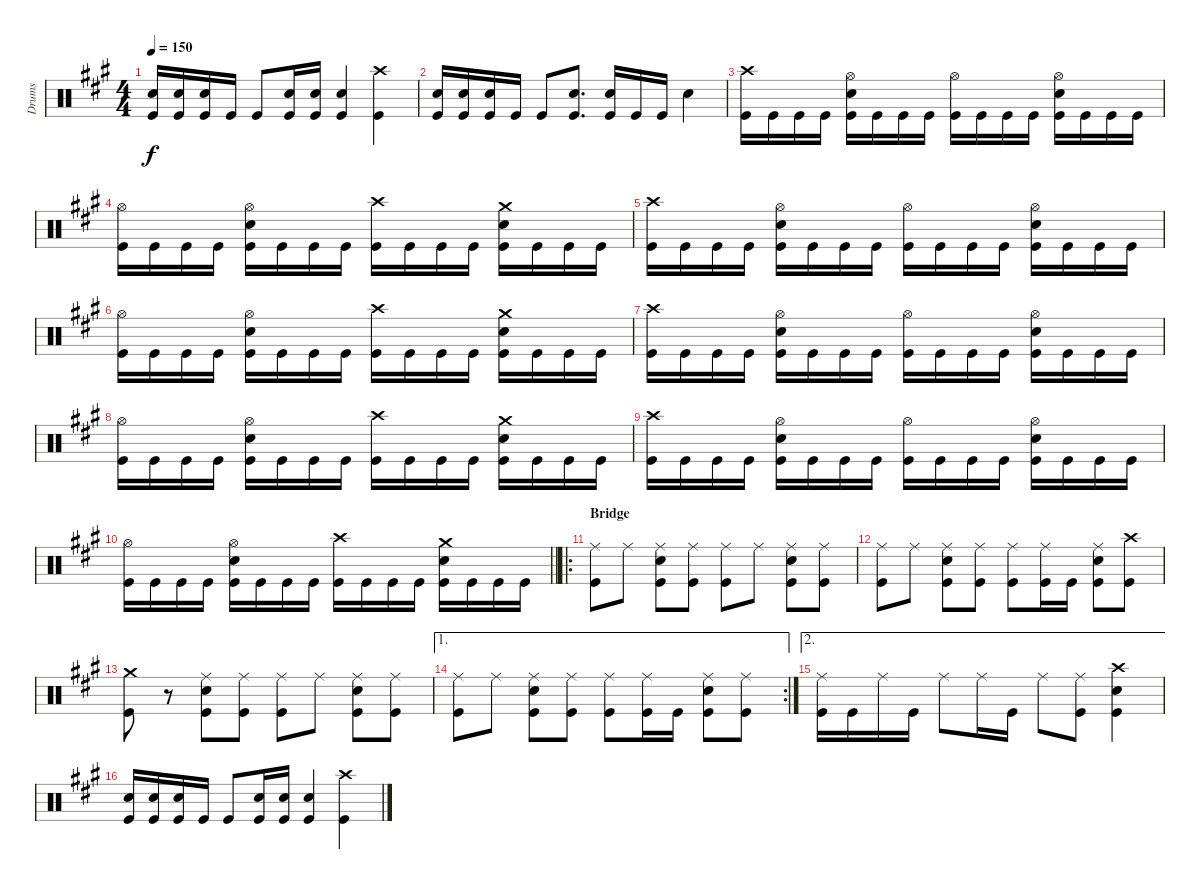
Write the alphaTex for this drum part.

\track ("Drums" "Drums") {instrument percussion}
\staff {score}
\articulation defaults
\ts (4 4)
\tempo 150
\clef neutral
\ks f#minor
("Snare (hit) 2" "Kick (hit)").16{dy f} ("Snare (hit) 2" "Kick (hit)").16 ("Snare (hit) 2" "Kick (hit)").16 "Kick (hit)".16 "Kick (hit)".8 ("Snare (hit) 2" "Kick (hit)").16 ("Snare (hit) 2" "Kick (hit)").16 ("Snare (hit) 2" "Kick (hit)").4 ("Crash high (hit)" "Kick (hit)").4 |
("Kick (hit)" "Snare (hit) 2").16 ("Kick (hit)" "Snare (hit) 2").16 ("Kick (hit)" "Snare (hit) 2").16 "Kick (hit)".16 "Kick (hit)".8 ("Snare (hit) 2" "Kick (hit)").8{d} ("Snare (hit) 2" "Kick (hit)").16 "Kick (hit)".16 "Kick (hit)".16 "Snare (hit) 2".4 |
("Kick (hit)" "Crash high (hit)").16 "Kick (hit)".16 "Kick (hit)".16 "Kick (hit)".16 ("Kick (hit)" "Snare (hit) 2" "Hi-Hat (open)").16 "Kick (hit)".16 "Kick (hit)".16 "Kick (hit)".16 ("Kick (hit)" "Hi-Hat (open)").16 "Kick (hit)".16 "Kick (hit)".16 "Kick (hit)".16 ("Kick (hit)" "Snare (hit) 2" "Hi-Hat (open)").16 "Kick (hit)".16 "Kick (hit)".16 "Kick (hit)".16 |
("Kick (hit)" "Hi-Hat (open)").16 "Kick (hit)".16 "Kick (hit)".16 "Kick (hit)".16 ("Kick (hit)" "Snare (hit) 2" "Hi-Hat (open)").16 "Kick (hit)".16 "Kick (hit)".16 "Kick (hit)".16 ("Kick (hit)" "Crash high (hit)").16 "Kick (hit)".16 "Kick (hit)".16 "Kick (hit)".16 ("Kick (hit)" "Snare (hit) 2" "Crash medium (hit)").16 "Kick (hit)".16 "Kick (hit)".16 "Kick (hit)".16 |
("Kick (hit)" "Crash high (hit)").16 "Kick (hit)".16 "Kick (hit)".16 "Kick (hit)".16 ("Kick (hit)" "Snare (hit) 2" "Hi-Hat (open)").16 "Kick (hit)".16 "Kick (hit)".16 "Kick (hit)".16 ("Kick (hit)" "Hi-Hat (open)").16 "Kick (hit)".16 "Kick (hit)".16 "Kick (hit)".16 ("Kick (hit)" "Snare (hit) 2" "Hi-Hat (open)").16 "Kick (hit)".16 "Kick (hit)".16 "Kick (hit)".16 |
("Kick (hit)" "Hi-Hat (open)").16 "Kick (hit)".16 "Kick (hit)".16 "Kick (hit)".16 ("Kick (hit)" "Snare (hit) 2" "Hi-Hat (open)").16 "Kick (hit)".16 "Kick (hit)".16 "Kick (hit)".16 ("Kick (hit)" "Crash high (hit)").16 "Kick (hit)".16 "Kick (hit)".16 "Kick (hit)".16 ("Kick (hit)" "Snare (hit) 2" "Crash medium (hit)").16 "Kick (hit)".16 "Kick (hit)".16 "Kick (hit)".16 |
("Kick (hit)" "Crash high (hit)").16 "Kick (hit)".16 "Kick (hit)".16 "Kick (hit)".16 ("Kick (hit)" "Snare (hit) 2" "Hi-Hat (open)").16 "Kick (hit)".16 "Kick (hit)".16 "Kick (hit)".16 ("Kick (hit)" "Hi-Hat (open)").16 "Kick (hit)".16 "Kick (hit)".16 "Kick (hit)".16 ("Kick (hit)" "Snare (hit) 2" "Hi-Hat (open)").16 "Kick (hit)".16 "Kick (hit)".16 "Kick (hit)".16 |
("Kick (hit)" "Hi-Hat (open)").16 "Kick (hit)".16 "Kick (hit)".16 "Kick (hit)".16 ("Kick (hit)" "Snare (hit) 2" "Hi-Hat (open)").16 "Kick (hit)".16 "Kick (hit)".16 "Kick (hit)".16 ("Kick (hit)" "Crash high (hit)").16 "Kick (hit)".16 "Kick (hit)".16 "Kick (hit)".16 ("Kick (hit)" "Snare (hit) 2" "Crash medium (hit)").16 "Kick (hit)".16 "Kick (hit)".16 "Kick (hit)".16 |
("Kick (hit)" "Crash high (hit)").16 "Kick (hit)".16 "Kick (hit)".16 "Kick (hit)".16 ("Kick (hit)" "Snare (hit) 2" "Hi-Hat (open)").16 "Kick (hit)".16 "Kick (hit)".16 "Kick (hit)".16 ("Kick (hit)" "Hi-Hat (open)").16 "Kick (hit)".16 "Kick (hit)".16 "Kick (hit)".16 ("Kick (hit)" "Snare (hit) 2" "Hi-Hat (open)").16 "Kick (hit)".16 "Kick (hit)".16 "Kick (hit)".16 |
\barLineRight lightlight
("Kick (hit)" "Hi-Hat (open)").16 "Kick (hit)".16 "Kick (hit)".16 "Kick (hit)".16 ("Kick (hit)" "Snare (hit) 2" "Hi-Hat (open)").16 "Kick (hit)".16 "Kick (hit)".16 "Kick (hit)".16 ("Kick (hit)" "Crash high (hit)").16 "Kick (hit)".16 "Kick (hit)".16 "Kick (hit)".16 ("Kick (hit)" "Snare (hit) 2" "Crash medium (hit)").16 "Kick (hit)".16 "Kick (hit)".16 "Kick (hit)".16 |
\ro
\section ("" "Bridge")
("Ride (middle)" "Kick (hit)").8 "Ride (middle)".8 ("Ride (middle)" "Snare (hit) 2" "Kick (hit)").8 ("Ride (middle)" "Kick (hit)").8 ("Ride (middle)" "Kick (hit)").8 "Ride (middle)".8 ("Ride (middle)" "Snare (hit) 2" "Kick (hit)").8 ("Ride (middle)" "Kick (hit)").8 |
("Kick (hit)" "Ride (middle)").8 "Ride (middle)".8 ("Kick (hit)" "Snare (hit) 2" "Ride (middle)").8 ("Kick (hit)" "Ride (middle)").8 ("Kick (hit)" "Ride (middle)").8 ("Kick (hit)" "Ride (middle)").16 "Kick (hit)".16 ("Kick (hit)" "Snare (hit) 2" "Ride (middle)").8 ("Kick (hit)" "Crash high (hit)").8 |
("Crash medium (hit)" "Kick (hit)").8 r.8 ("Ride (middle)" "Snare (hit) 2" "Kick (hit)").8 ("Kick (hit)" "Ride (middle)").8 ("Ride (middle)" "Kick (hit)").8 "Ride (middle)".8 ("Ride (middle)" "Snare (hit) 2" "Kick (hit)").8 ("Kick (hit)" "Ride (middle)").8 |
\ae 1
\rc 2
("Ride (middle)" "Kick (hit)").8 "Ride (middle)".8 ("Ride (middle)" "Snare (hit) 2" "Kick (hit)").8 ("Kick (hit)" "Ride (middle)").8 ("Ride (middle)" "Kick (hit)").8 ("Ride (middle)" "Kick (hit)").16 "Kick (hit)".16 ("Ride (middle)" "Snare (hit) 2" "Kick (hit)").8 ("Kick (hit)" "Ride (middle)").8 |
\ae 2
("Ride (middle)" "Kick (hit)").16 "Kick (hit)".16 "Ride (middle)".16 "Kick (hit)".16 "Ride (middle)".8 "Ride (middle)".16 "Kick (hit)".16 "Ride (middle)".8 ("Kick (hit)" "Ride (middle)").8 ("Snare (hit) 2" "Kick (hit)" "Crash high (hit)").4 |
("Snare (hit) 2" "Kick (hit)").16 ("Snare (hit) 2" "Kick (hit)").16 ("Snare (hit) 2" "Kick (hit)").16 "Kick (hit)".16 "Kick (hit)".8 ("Snare (hit) 2" "Kick (hit)").16 ("Snare (hit) 2" "Kick (hit)").16 ("Snare (hit) 2" "Kick (hit)").4 ("Crash high (hit)" "Kick (hit)").4
